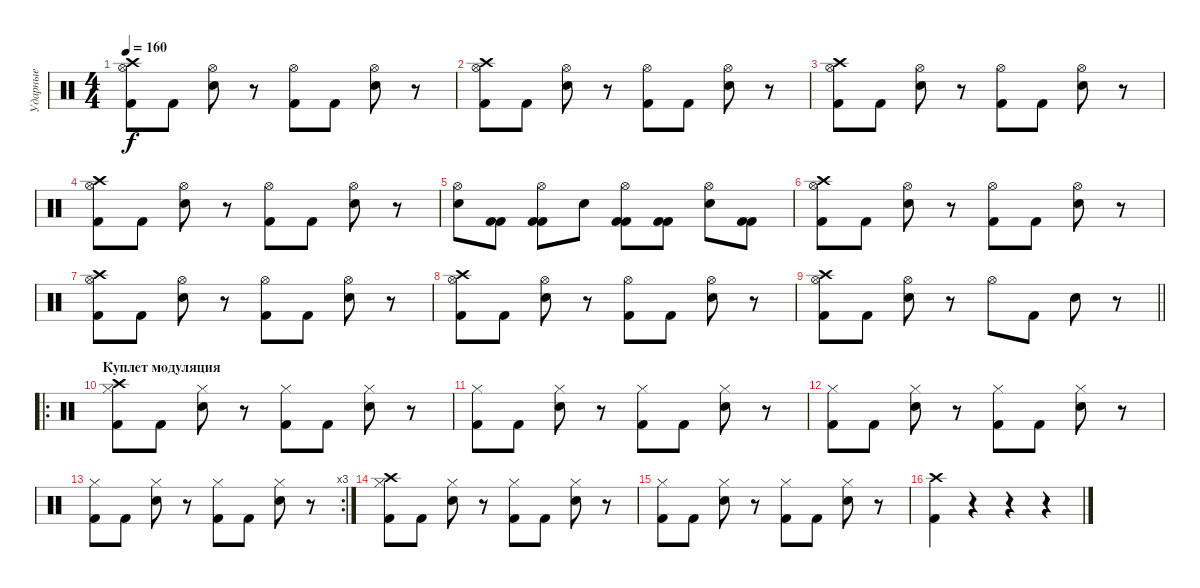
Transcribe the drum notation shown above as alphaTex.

\track ("Ударные" "Ударные") {instrument percussion}
\staff {score}
\articulation defaults
\ts (4 4)
\tempo 160
\clef neutral
\ks c
("Crash high (hit)" "Kick (hit) 2" "Hi-Hat (open)").8{dy f} "Kick (hit) 2".8 ("Snare (hit) 2" "Hi-Hat (open)").8 r.8 ("Kick (hit) 2" "Hi-Hat (open)").8 "Kick (hit) 2".8 ("Snare (hit) 2" "Hi-Hat (open)").8 r.8 |
("Crash high (hit)" "Kick (hit) 2" "Hi-Hat (open)").8 "Kick (hit) 2".8 ("Snare (hit) 2" "Hi-Hat (open)").8 r.8 ("Kick (hit) 2" "Hi-Hat (open)").8 "Kick (hit) 2".8 ("Snare (hit) 2" "Hi-Hat (open)").8 r.8 |
("Crash high (hit)" "Kick (hit) 2" "Hi-Hat (open)").8 "Kick (hit) 2".8 ("Snare (hit) 2" "Hi-Hat (open)").8 r.8 ("Kick (hit) 2" "Hi-Hat (open)").8 "Kick (hit) 2".8 ("Snare (hit) 2" "Hi-Hat (open)").8 r.8 |
("Crash high (hit)" "Kick (hit) 2" "Hi-Hat (open)").8 "Kick (hit) 2".8 ("Snare (hit) 2" "Hi-Hat (open)").8 r.8 ("Kick (hit) 2" "Hi-Hat (open)").8 "Kick (hit) 2".8 ("Snare (hit) 2" "Hi-Hat (open)").8 r.8 |
("Hi-Hat (open)" "Snare (hit) 2").8 ("Kick (hit) 2" "Kick (hit) 2").8 ("Kick (hit) 2" "Hi-Hat (open)" "Kick (hit) 2").8 "Snare (hit) 2".8 ("Kick (hit) 2" "Hi-Hat (open)" "Kick (hit) 2").8 ("Kick (hit) 2" "Kick (hit) 2").8 ("Hi-Hat (open)" "Snare (hit) 2").8 ("Kick (hit) 2" "Kick (hit) 2").8 |
("Crash high (hit)" "Kick (hit) 2" "Hi-Hat (open)").8 "Kick (hit) 2".8 ("Snare (hit) 2" "Hi-Hat (open)").8 r.8 ("Kick (hit) 2" "Hi-Hat (open)").8 "Kick (hit) 2".8 ("Snare (hit) 2" "Hi-Hat (open)").8 r.8 |
("Crash high (hit)" "Kick (hit) 2" "Hi-Hat (open)").8 "Kick (hit) 2".8 ("Snare (hit) 2" "Hi-Hat (open)").8 r.8 ("Kick (hit) 2" "Hi-Hat (open)").8 "Kick (hit) 2".8 ("Snare (hit) 2" "Hi-Hat (open)").8 r.8 |
("Crash high (hit)" "Kick (hit) 2" "Hi-Hat (open)").8 "Kick (hit) 2".8 ("Snare (hit) 2" "Hi-Hat (open)").8 r.8 ("Kick (hit) 2" "Hi-Hat (open)").8 "Kick (hit) 2".8 ("Snare (hit) 2" "Hi-Hat (open)").8 r.8 |
\barLineRight lightlight
("Crash high (hit)" "Kick (hit) 2" "Hi-Hat (open)").8 "Kick (hit) 2".8 ("Snare (hit) 2" "Hi-Hat (open)").8 r.8 "Hi-Hat (open)".8 "Kick (hit) 2".8 "Snare (hit) 2".8 r.8 |
\ro
\section ("" "Куплет модуляция")
("Crash high (hit)" "Kick (hit) 2" "Hi-Hat (closed)").8 "Kick (hit) 2".8 ("Snare (hit) 2" "Hi-Hat (closed)").8 r.8 ("Kick (hit) 2" "Hi-Hat (closed)").8 "Kick (hit) 2".8 ("Snare (hit) 2" "Hi-Hat (closed)").8 r.8 |
("Kick (hit) 2" "Hi-Hat (closed)").8 "Kick (hit) 2".8 ("Snare (hit) 2" "Hi-Hat (closed)").8 r.8 ("Kick (hit) 2" "Hi-Hat (closed)").8 "Kick (hit) 2".8 ("Snare (hit) 2" "Hi-Hat (closed)").8 r.8 |
("Kick (hit) 2" "Hi-Hat (closed)").8 "Kick (hit) 2".8 ("Snare (hit) 2" "Hi-Hat (closed)").8 r.8 ("Kick (hit) 2" "Hi-Hat (closed)").8 "Kick (hit) 2".8 ("Snare (hit) 2" "Hi-Hat (closed)").8 r.8 |
\rc 3
("Kick (hit) 2" "Hi-Hat (closed)").8 "Kick (hit) 2".8 ("Snare (hit) 2" "Hi-Hat (closed)").8 r.8 ("Kick (hit) 2" "Hi-Hat (closed)").8 "Kick (hit) 2".8 ("Snare (hit) 2" "Hi-Hat (closed)").8 r.8 |
("Crash high (hit)" "Kick (hit) 2" "Hi-Hat (closed)").8 "Kick (hit) 2".8 ("Snare (hit) 2" "Hi-Hat (closed)").8 r.8 ("Kick (hit) 2" "Hi-Hat (closed)").8 "Kick (hit) 2".8 ("Snare (hit) 2" "Hi-Hat (closed)").8 r.8 |
("Kick (hit) 2" "Hi-Hat (closed)").8 "Kick (hit) 2".8 ("Snare (hit) 2" "Hi-Hat (closed)").8 r.8 ("Kick (hit) 2" "Hi-Hat (closed)").8 "Kick (hit) 2".8 ("Snare (hit) 2" "Hi-Hat (closed)").8 r.8 |
("Crash high (hit)" "Kick (hit) 2").4 r.4 r.4 r.4
